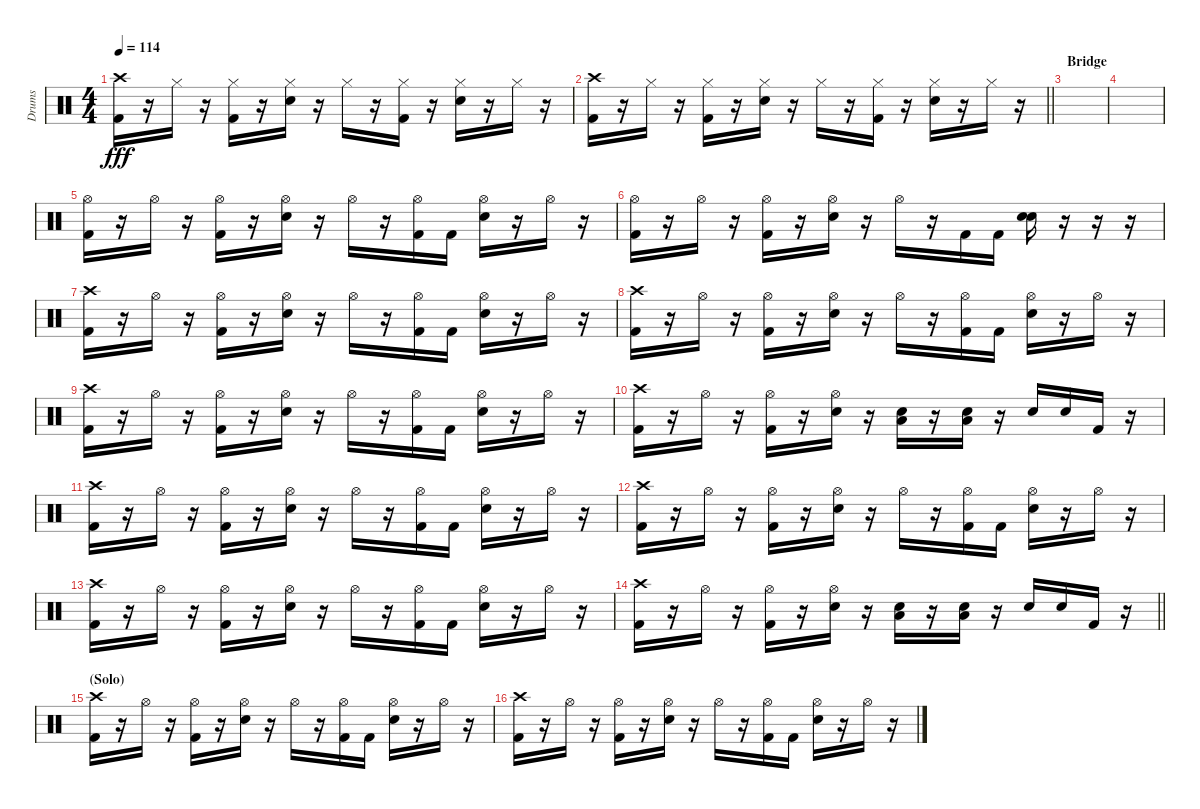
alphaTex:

\track ("Drums" "Drums") {instrument percussion bank 127}
\staff {score}
\articulation defaults
\ts (4 4)
\tempo 114
\clef neutral
\ks c
("Crash high (hit)" "Kick (hit) 2").16{dy fff} r.16 "Hi-Hat (closed)".16 r.16 ("Hi-Hat (closed)" "Kick (hit) 2").16 r.16 ("Hi-Hat (closed)" "Electric Snare (hit)").16 r.16 "Hi-Hat (closed)".16 r.16 ("Hi-Hat (closed)" "Kick (hit) 2").16 r.16 ("Hi-Hat (closed)" "Electric Snare (hit)").16 r.16 "Hi-Hat (closed)".16 r.16 |
\barLineRight lightlight
("Crash high (hit)" "Kick (hit) 2").16 r.16 "Hi-Hat (closed)".16 r.16 ("Hi-Hat (closed)" "Kick (hit) 2").16 r.16 ("Hi-Hat (closed)" "Electric Snare (hit)").16 r.16 "Hi-Hat (closed)".16 r.16 ("Hi-Hat (closed)" "Kick (hit) 2").16 r.16 ("Hi-Hat (closed)" "Electric Snare (hit)").16 r.16 "Hi-Hat (closed)".16 r.16 |
\section ("" "Bridge")
|
|
("Hi-Hat (open)" "Kick (hit) 2").16 r.16 "Hi-Hat (open)".16 r.16 ("Hi-Hat (open)" "Kick (hit) 2").16 r.16 ("Hi-Hat (open)" "Electric Snare (hit)").16 r.16 "Hi-Hat (open)".16 r.16 ("Hi-Hat (open)" "Kick (hit) 2").16 "Kick (hit) 2".16 ("Hi-Hat (open)" "Electric Snare (hit)").16 r.16 "Hi-Hat (open)".16 r.16 |
("Hi-Hat (open)" "Kick (hit) 2").16 r.16 "Hi-Hat (open)".16 r.16 ("Hi-Hat (open)" "Kick (hit) 2").16 r.16 ("Hi-Hat (open)" "Electric Snare (hit)").16 r.16 "Hi-Hat (open)".16 r.16 "Kick (hit) 2".16 "Kick (hit) 2".16 ("Electric Snare (hit)" "Electric Snare (hit)").16 r.16 r.16 r.16 |
("Crash high (hit)" "Kick (hit) 2").16 r.16 "Hi-Hat (open)".16 r.16 ("Hi-Hat (open)" "Kick (hit) 2").16 r.16 ("Hi-Hat (open)" "Electric Snare (hit)").16 r.16 "Hi-Hat (open)".16 r.16 ("Hi-Hat (open)" "Kick (hit) 2").16 "Kick (hit) 2".16 ("Hi-Hat (open)" "Electric Snare (hit)").16 r.16 "Hi-Hat (open)".16 r.16 |
("Crash high (hit)" "Kick (hit) 2").16 r.16 "Hi-Hat (open)".16 r.16 ("Hi-Hat (open)" "Kick (hit) 2").16 r.16 ("Hi-Hat (open)" "Electric Snare (hit)").16 r.16 "Hi-Hat (open)".16 r.16 ("Hi-Hat (open)" "Kick (hit) 2").16 "Kick (hit) 2".16 ("Hi-Hat (open)" "Electric Snare (hit)").16 r.16 "Hi-Hat (open)".16 r.16 |
("Crash high (hit)" "Kick (hit) 2").16 r.16 "Hi-Hat (open)".16 r.16 ("Hi-Hat (open)" "Kick (hit) 2").16 r.16 ("Hi-Hat (open)" "Electric Snare (hit)").16 r.16 "Hi-Hat (open)".16 r.16 ("Hi-Hat (open)" "Kick (hit) 2").16 "Kick (hit) 2".16 ("Hi-Hat (open)" "Electric Snare (hit)").16 r.16 "Hi-Hat (open)".16 r.16 |
("Crash high (hit)" "Kick (hit) 2").16 r.16 "Hi-Hat (open)".16 r.16 ("Hi-Hat (open)" "Kick (hit) 2").16 r.16 ("Hi-Hat (open)" "Electric Snare (hit)").16 r.16 ("Low Floor Tom (hit)" "Electric Snare (hit)").16 r.16 ("Low Floor Tom (hit)" "Electric Snare (hit)").16 r.16 "Electric Snare (hit)".16 "Electric Snare (hit)".16 "Kick (hit) 2".16 r.16 |
("Crash high (hit)" "Kick (hit) 2").16 r.16 "Hi-Hat (open)".16 r.16 ("Hi-Hat (open)" "Kick (hit) 2").16 r.16 ("Hi-Hat (open)" "Electric Snare (hit)").16 r.16 "Hi-Hat (open)".16 r.16 ("Hi-Hat (open)" "Kick (hit) 2").16 "Kick (hit) 2".16 ("Hi-Hat (open)" "Electric Snare (hit)").16 r.16 "Hi-Hat (open)".16 r.16 |
("Crash high (hit)" "Kick (hit) 2").16 r.16 "Hi-Hat (open)".16 r.16 ("Hi-Hat (open)" "Kick (hit) 2").16 r.16 ("Hi-Hat (open)" "Electric Snare (hit)").16 r.16 "Hi-Hat (open)".16 r.16 ("Hi-Hat (open)" "Kick (hit) 2").16 "Kick (hit) 2".16 ("Hi-Hat (open)" "Electric Snare (hit)").16 r.16 "Hi-Hat (open)".16 r.16 |
("Crash high (hit)" "Kick (hit) 2").16 r.16 "Hi-Hat (open)".16 r.16 ("Hi-Hat (open)" "Kick (hit) 2").16 r.16 ("Hi-Hat (open)" "Electric Snare (hit)").16 r.16 "Hi-Hat (open)".16 r.16 ("Hi-Hat (open)" "Kick (hit) 2").16 "Kick (hit) 2".16 ("Hi-Hat (open)" "Electric Snare (hit)").16 r.16 "Hi-Hat (open)".16 r.16 |
\barLineRight lightlight
("Crash high (hit)" "Kick (hit) 2").16 r.16 "Hi-Hat (open)".16 r.16 ("Hi-Hat (open)" "Kick (hit) 2").16 r.16 ("Hi-Hat (open)" "Electric Snare (hit)").16 r.16 ("Low Floor Tom (hit)" "Electric Snare (hit)").16 r.16 ("Low Floor Tom (hit)" "Electric Snare (hit)").16 r.16 "Electric Snare (hit)".16 "Electric Snare (hit)".16 "Kick (hit) 2".16 r.16 |
\section ("" "(Solo)")
("Crash high (hit)" "Kick (hit) 2").16 r.16 "Hi-Hat (open)".16 r.16 ("Hi-Hat (open)" "Kick (hit) 2").16 r.16 ("Hi-Hat (open)" "Electric Snare (hit)").16 r.16 "Hi-Hat (open)".16 r.16 ("Hi-Hat (open)" "Kick (hit) 2").16 "Kick (hit) 2".16 ("Hi-Hat (open)" "Electric Snare (hit)").16 r.16 "Hi-Hat (open)".16 r.16 |
("Crash high (hit)" "Kick (hit) 2").16 r.16 "Hi-Hat (open)".16 r.16 ("Hi-Hat (open)" "Kick (hit) 2").16 r.16 ("Hi-Hat (open)" "Electric Snare (hit)").16 r.16 "Hi-Hat (open)".16 r.16 ("Hi-Hat (open)" "Kick (hit) 2").16 "Kick (hit) 2".16 ("Hi-Hat (open)" "Electric Snare (hit)").16 r.16 "Hi-Hat (open)".16 r.16
